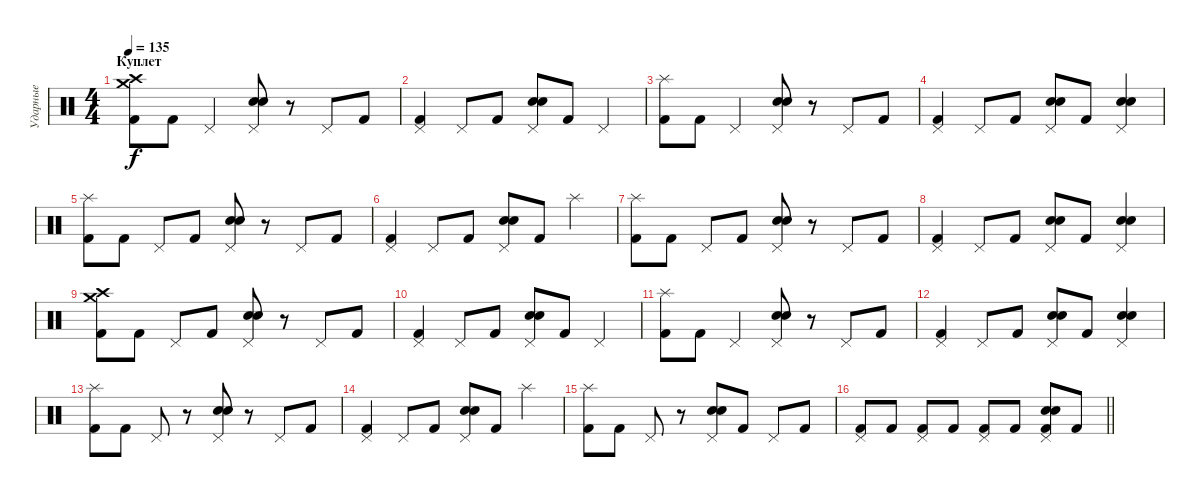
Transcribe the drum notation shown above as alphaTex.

\track ("Ударные" "Ударные") {instrument percussion}
\staff {score}
\articulation defaults
\ts (4 4)
\section ("" "Куплет")
\tempo 135
\clef neutral
\ks c
("Crash medium (hit)" "Crash high (hit)" "Kick (hit) 2").8{dy f} "Kick (hit) 2".8 "Pedal Hi-Hat (hit)".4 ("Pedal Hi-Hat (hit)" "Electric Snare (hit)" "Snare (hit) 2").8 r.8 "Pedal Hi-Hat (hit)".8 "Kick (hit) 2".8 |
("Pedal Hi-Hat (hit)" "Kick (hit) 2").4 "Pedal Hi-Hat (hit)".8 "Kick (hit) 2".8 ("Pedal Hi-Hat (hit)" "Electric Snare (hit)" "Snare (hit) 2").8 "Kick (hit) 2".8 "Pedal Hi-Hat (hit)".4 |
("Splash (hit)" "Kick (hit) 2").8 "Kick (hit) 2".8 "Pedal Hi-Hat (hit)".4 ("Pedal Hi-Hat (hit)" "Electric Snare (hit)" "Snare (hit) 2").8 r.8 "Pedal Hi-Hat (hit)".8 "Kick (hit) 2".8 |
("Pedal Hi-Hat (hit)" "Kick (hit) 2").4 "Pedal Hi-Hat (hit)".8 "Kick (hit) 2".8 ("Pedal Hi-Hat (hit)" "Electric Snare (hit)" "Snare (hit) 2").8 "Kick (hit) 2".8 ("Pedal Hi-Hat (hit)" "Electric Snare (hit)" "Snare (hit) 2").4 |
("Splash (hit)" "Kick (hit) 2").8 "Kick (hit) 2".8 "Pedal Hi-Hat (hit)".8 "Kick (hit) 2".8 ("Pedal Hi-Hat (hit)" "Electric Snare (hit)" "Snare (hit) 2").8 r.8 "Pedal Hi-Hat (hit)".8 "Kick (hit) 2".8 |
("Pedal Hi-Hat (hit)" "Kick (hit) 2").4 "Pedal Hi-Hat (hit)".8 "Kick (hit) 2".8 ("Pedal Hi-Hat (hit)" "Electric Snare (hit)" "Snare (hit) 2").8 "Kick (hit) 2".8 "Splash (hit)".4 |
("Splash (hit)" "Kick (hit) 2").8 "Kick (hit) 2".8 "Pedal Hi-Hat (hit)".8 "Kick (hit) 2".8 ("Pedal Hi-Hat (hit)" "Electric Snare (hit)" "Snare (hit) 2").8 r.8 "Pedal Hi-Hat (hit)".8 "Kick (hit) 2".8 |
("Pedal Hi-Hat (hit)" "Kick (hit) 2").4 "Pedal Hi-Hat (hit)".8 "Kick (hit) 2".8 ("Pedal Hi-Hat (hit)" "Electric Snare (hit)" "Snare (hit) 2").8 "Kick (hit) 2".8 ("Pedal Hi-Hat (hit)" "Electric Snare (hit)" "Snare (hit) 2").4 |
("Crash medium (hit)" "Crash high (hit)" "Kick (hit) 2").8 "Kick (hit) 2".8 "Pedal Hi-Hat (hit)".8 "Kick (hit) 2".8 ("Pedal Hi-Hat (hit)" "Electric Snare (hit)" "Snare (hit) 2").8 r.8 "Pedal Hi-Hat (hit)".8 "Kick (hit) 2".8 |
("Pedal Hi-Hat (hit)" "Kick (hit) 2").4 "Pedal Hi-Hat (hit)".8 "Kick (hit) 2".8 ("Pedal Hi-Hat (hit)" "Electric Snare (hit)" "Snare (hit) 2").8 "Kick (hit) 2".8 "Pedal Hi-Hat (hit)".4 |
("Splash (hit)" "Kick (hit) 2").8 "Kick (hit) 2".8 "Pedal Hi-Hat (hit)".4 ("Pedal Hi-Hat (hit)" "Electric Snare (hit)" "Snare (hit) 2").8 r.8 "Pedal Hi-Hat (hit)".8 "Kick (hit) 2".8 |
("Pedal Hi-Hat (hit)" "Kick (hit) 2").4 "Pedal Hi-Hat (hit)".8 "Kick (hit) 2".8 ("Pedal Hi-Hat (hit)" "Electric Snare (hit)" "Snare (hit) 2").8 "Kick (hit) 2".8 ("Pedal Hi-Hat (hit)" "Electric Snare (hit)" "Snare (hit) 2").4 |
("Splash (hit)" "Kick (hit) 2").8 "Kick (hit) 2".8 "Pedal Hi-Hat (hit)".8 r.8 ("Pedal Hi-Hat (hit)" "Electric Snare (hit)" "Snare (hit) 2").8 r.8 "Pedal Hi-Hat (hit)".8 "Kick (hit) 2".8 |
("Pedal Hi-Hat (hit)" "Kick (hit) 2").4 "Pedal Hi-Hat (hit)".8 "Kick (hit) 2".8 ("Pedal Hi-Hat (hit)" "Electric Snare (hit)" "Snare (hit) 2").8 "Kick (hit) 2".8 "Splash (hit)".4 |
("Splash (hit)" "Kick (hit) 2").8 "Kick (hit) 2".8 "Pedal Hi-Hat (hit)".8 r.8 ("Pedal Hi-Hat (hit)" "Electric Snare (hit)" "Snare (hit) 2").8 "Kick (hit) 2".8 "Pedal Hi-Hat (hit)".8 "Kick (hit) 2".8 |
\barLineRight lightlight
("Pedal Hi-Hat (hit)" "Kick (hit) 2").8 "Kick (hit) 2".8 ("Pedal Hi-Hat (hit)" "Kick (hit) 2").8 "Kick (hit) 2".8 ("Pedal Hi-Hat (hit)" "Kick (hit) 2").8 "Kick (hit) 2".8 ("Pedal Hi-Hat (hit)" "Electric Snare (hit)" "Snare (hit) 2" "Kick (hit) 2").8 "Kick (hit) 2".8
